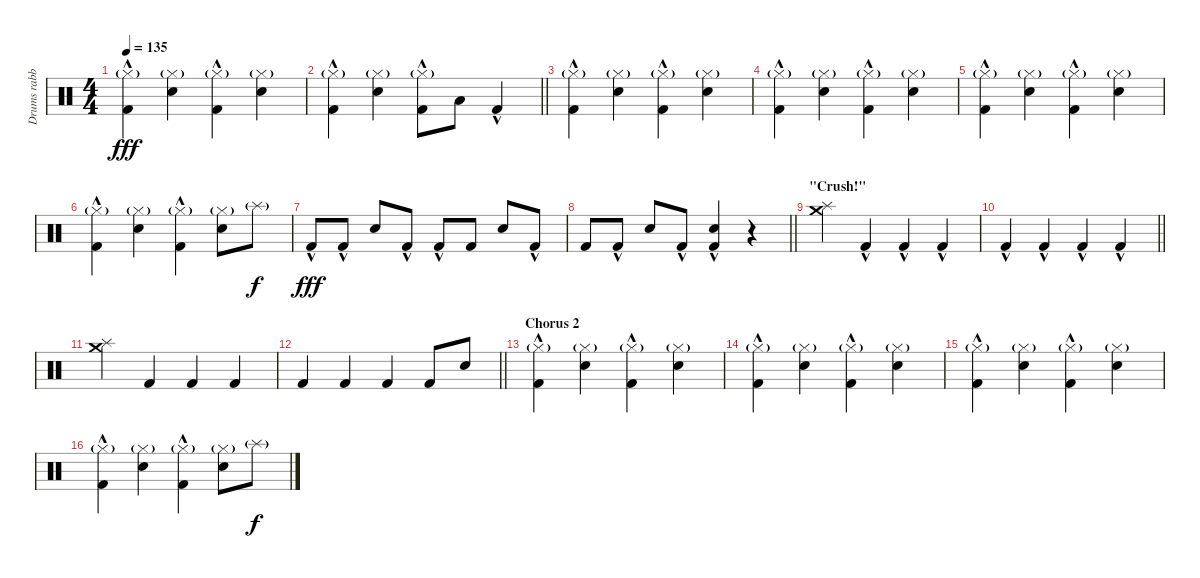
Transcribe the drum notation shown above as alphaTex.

\track ("Drums rabbit" "Drums rabb") {instrument percussion}
\staff {score}
\articulation defaults
\ts (4 4)
\tempo 135
\clef neutral
\ks c
("Kick (hit) 2"{hac} "Hi-Hat (closed)"{g}).4{dy fff} ("Electric Snare (hit)" "Hi-Hat (closed)"{g}).4 ("Kick (hit) 2"{hac} "Hi-Hat (closed)"{g}).4 ("Electric Snare (hit)" "Hi-Hat (closed)"{g}).4 |
\barLineRight lightlight
("Kick (hit) 2"{hac} "Hi-Hat (closed)"{g}).4 ("Electric Snare (hit)" "Hi-Hat (closed)"{g}).4 ("Kick (hit) 2"{hac} "Hi-Hat (closed)"{g}).8 "Low Floor Tom (hit)".8 "Kick (hit) 2"{hac}.4 |
("Kick (hit) 2"{hac} "Hi-Hat (closed)"{g}).4 ("Electric Snare (hit)" "Hi-Hat (closed)"{g}).4 ("Kick (hit) 2"{hac} "Hi-Hat (closed)"{g}).4 ("Electric Snare (hit)" "Hi-Hat (closed)"{g}).4 |
("Kick (hit) 2"{hac} "Hi-Hat (closed)"{g}).4 ("Electric Snare (hit)" "Hi-Hat (closed)"{g}).4 ("Kick (hit) 2"{hac} "Hi-Hat (closed)"{g}).4 ("Electric Snare (hit)" "Hi-Hat (closed)"{g}).4 |
("Kick (hit) 2"{hac} "Hi-Hat (closed)"{g}).4 ("Electric Snare (hit)" "Hi-Hat (closed)"{g}).4 ("Kick (hit) 2"{hac} "Hi-Hat (closed)"{g}).4 ("Electric Snare (hit)" "Hi-Hat (closed)"{g}).4 |
("Kick (hit) 2"{hac} "Hi-Hat (closed)"{g}).4 ("Electric Snare (hit)" "Hi-Hat (closed)"{g}).4 ("Kick (hit) 2"{hac} "Hi-Hat (closed)"{g}).4 ("Electric Snare (hit)" "Hi-Hat (closed)"{g}).8 "Splash (hit)"{g}.8{dy f} |
"Kick (hit) 2"{hac}.8{dy fff} "Kick (hit) 2"{hac}.8 "Electric Snare (hit)".8 "Kick (hit) 2"{hac}.8 "Kick (hit) 2"{hac}.8 "Kick (hit) 2".8 "Electric Snare (hit)".8 "Kick (hit) 2"{hac}.8 |
\barLineRight lightlight "Kick (hit) 2".8 "Kick (hit) 2"{hac}.8 "Electric Snare (hit)".8 "Kick (hit) 2"{hac}.8
("Kick (hit) 2"{hac} "Electric Snare (hit)").4 r.4 |
\section ("" "\"Crush!\"")
("Crash medium (hit)" "Splash (hit)").4 "Kick (hit) 2"{hac}.4 "Kick (hit) 2"{hac}.4 "Kick (hit) 2"{hac}.4 |
\barLineRight lightlight "Kick (hit) 2"{hac}.4 "Kick (hit) 2"{hac}.4 "Kick (hit) 2"{hac}.4 "Kick (hit) 2"{hac}.4
|
("Crash medium (hit)" "Splash (hit)").4 "Kick (hit) 2".4 "Kick (hit) 2".4 "Kick (hit) 2".4 |
\barLineRight lightlight "Kick (hit) 2".4 "Kick (hit) 2".4 "Kick (hit) 2".4 "Kick (hit) 2".8 "Electric Snare (hit)".8
|
\section ("" "Chorus 2")
("Kick (hit) 2"{hac} "Hi-Hat (closed)"{g}).4 ("Electric Snare (hit)" "Hi-Hat (closed)"{g}).4 ("Kick (hit) 2"{hac} "Hi-Hat (closed)"{g}).4 ("Electric Snare (hit)" "Hi-Hat (closed)"{g}).4 |
("Kick (hit) 2"{hac} "Hi-Hat (closed)"{g}).4 ("Electric Snare (hit)" "Hi-Hat (closed)"{g}).4 ("Kick (hit) 2"{hac} "Hi-Hat (closed)"{g}).4 ("Electric Snare (hit)" "Hi-Hat (closed)"{g}).4 |
("Kick (hit) 2"{hac} "Hi-Hat (closed)"{g}).4 ("Electric Snare (hit)" "Hi-Hat (closed)"{g}).4 ("Kick (hit) 2"{hac} "Hi-Hat (closed)"{g}).4 ("Electric Snare (hit)" "Hi-Hat (closed)"{g}).4 |
("Kick (hit) 2"{hac} "Hi-Hat (closed)"{g}).4 ("Electric Snare (hit)" "Hi-Hat (closed)"{g}).4 ("Kick (hit) 2"{hac} "Hi-Hat (closed)"{g}).4 ("Electric Snare (hit)" "Hi-Hat (closed)"{g}).8 "Splash (hit)"{g}.8{dy f}
